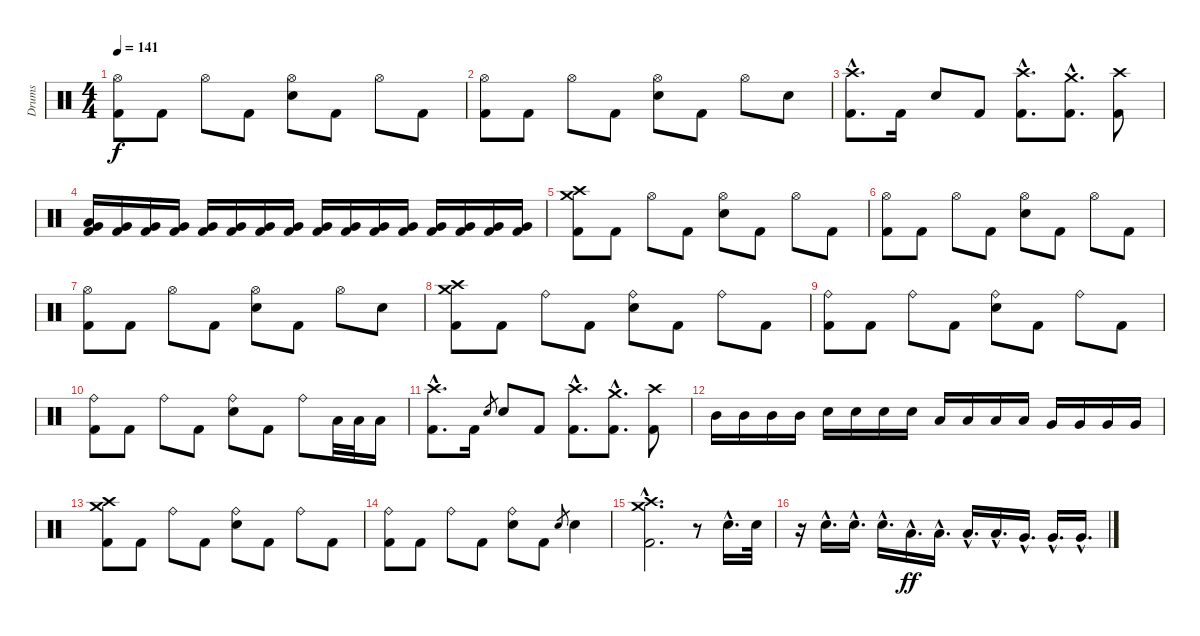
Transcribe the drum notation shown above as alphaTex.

\track ("Drums" "Drums") {instrument percussion}
\staff {score}
\articulation defaults
\ts (4 4)
\tempo 141
\clef neutral
\ks c
("Hi-Hat (open)" "Kick (hit) 2").8{dy f} "Kick (hit) 2".8 "Hi-Hat (open)".8 "Kick (hit) 2".8 ("Hi-Hat (open)" "Snare (hit) 2").8 "Kick (hit) 2".8 "Hi-Hat (open)".8 "Kick (hit) 2".8 |
("Hi-Hat (open)" "Kick (hit) 2").8 "Kick (hit) 2".8 "Hi-Hat (open)".8 "Kick (hit) 2".8 ("Hi-Hat (open)" "Snare (hit) 2").8 "Kick (hit) 2".8 "Hi-Hat (open)".8 "Snare (hit) 2".8 |
("Crash high (hit)"{hac} "Kick (hit) 2"{hac}).8{d} "Kick (hit) 2".16 "Snare (hit) 2".8 "Kick (hit) 2".8 ("Crash high (hit)"{hac} "Kick (hit) 2"{hac}).8{d} ("Crash medium (hit)"{hac} "Kick (hit) 2"{hac}).8{d} ("Crash high (hit)" "Kick (hit) 2").8 |
("Very Low Tom (hit)" "Low Floor Tom (hit)" "Kick (hit) 2").16 ("Very Low Tom (hit)" "Kick (hit) 2").16 ("Very Low Tom (hit)" "Kick (hit) 2").16 ("Very Low Tom (hit)" "Kick (hit) 2").16 ("Very Low Tom (hit)" "Kick (hit) 2").16 ("Very Low Tom (hit)" "Kick (hit) 2").16 ("Very Low Tom (hit)" "Kick (hit) 2").16 ("Very Low Tom (hit)" "Kick (hit) 2").16 ("Very Low Tom (hit)" "Kick (hit) 2").16 ("Very Low Tom (hit)" "Kick (hit) 2").16 ("Very Low Tom (hit)" "Kick (hit) 2").16 ("Very Low Tom (hit)" "Kick (hit) 2").16 ("Very Low Tom (hit)" "Kick (hit) 2").16 ("Very Low Tom (hit)" "Kick (hit) 2").16 ("Very Low Tom (hit)" "Kick (hit) 2").16 ("Very Low Tom (hit)" "Kick (hit) 2").16 |
("Crash high (hit)" "Crash medium (hit)" "Kick (hit) 2").8 "Kick (hit) 2".8 "Hi-Hat (open)".8 "Kick (hit) 2".8 ("Hi-Hat (open)" "Snare (hit) 2").8 "Kick (hit) 2".8 "Hi-Hat (open)".8 "Kick (hit) 2".8 |
("Hi-Hat (open)" "Kick (hit) 2").8 "Kick (hit) 2".8 "Hi-Hat (open)".8 "Kick (hit) 2".8 ("Hi-Hat (open)" "Snare (hit) 2").8 "Kick (hit) 2".8 "Hi-Hat (open)".8 "Kick (hit) 2".8 |
("Hi-Hat (open)" "Kick (hit) 2").8 "Kick (hit) 2".8 "Hi-Hat (open)".8 "Kick (hit) 2".8 ("Hi-Hat (open)" "Snare (hit) 2").8 "Kick (hit) 2".8 "Hi-Hat (open)".8 "Snare (hit) 2".8 |
("Crash high (hit)" "Crash medium (hit)" "Kick (hit) 2").8 "Kick (hit) 2".8 "Ride (bell)".8 "Kick (hit) 2".8 ("Ride (bell)" "Snare (hit) 2").8 "Kick (hit) 2".8 "Ride (bell)".8 "Kick (hit) 2".8 |
("Ride (bell)" "Kick (hit) 2").8 "Kick (hit) 2".8 "Ride (bell)".8 "Kick (hit) 2".8 ("Ride (bell)" "Snare (hit) 2").8 "Kick (hit) 2".8 "Ride (bell)".8 "Kick (hit) 2".8 |
("Ride (bell)" "Kick (hit) 2").8 "Kick (hit) 2".8 "Ride (bell)".8 "Kick (hit) 2".8 ("Ride (bell)" "Snare (hit) 2").8 "Kick (hit) 2".8 "Ride (bell)".8 "Low Tom (hit)".32 "Low Tom (hit)".32 "Low Tom (hit)".16 |
("Crash high (hit)"{hac} "Kick (hit) 2"{hac}).8{d} "Kick (hit) 2".16 "Snare (hit) 2".8{gr} "Snare (hit) 2".8 "Kick (hit) 2".8 ("Crash high (hit)"{hac} "Kick (hit) 2"{hac}).8{d} ("Crash medium (hit)"{hac} "Kick (hit) 2"{hac}).8{d} ("Crash high (hit)" "Kick (hit) 2").8 |
"Mid Tom (hit)".16 "Mid Tom (hit)".16 "Mid Tom (hit)".16 "Mid Tom (hit)".16 "Snare (hit) 2".16 "Snare (hit) 2".16 "Snare (hit) 2".16 "Snare (hit) 2".16 "Low Tom (hit)".16 "Low Tom (hit)".16 "Low Tom (hit)".16 "Low Tom (hit)".16 "Very Low Tom (hit)".16 "Very Low Tom (hit)".16 "Very Low Tom (hit)".16 "Very Low Tom (hit)".16 |
("Crash high (hit)" "Crash medium (hit)" "Kick (hit) 2").8 "Kick (hit) 2".8 "Ride (bell)".8 "Kick (hit) 2".8 ("Ride (bell)" "Snare (hit) 2").8 "Kick (hit) 2".8 "Ride (bell)".8 "Kick (hit) 2".8 |
("Ride (bell)" "Kick (hit) 2").8 "Kick (hit) 2".8 "Ride (bell)".8 "Kick (hit) 2".8 ("Ride (bell)" "Snare (hit) 2").8 "Kick (hit) 2".8 "Snare (hit) 2".8{gr} "Snare (hit) 2".4 |
("Crash high (hit)"{hac} "Crash medium (hit)"{hac} "Kick (hit) 2"{hac}).2{d} r.8 "Snare (hit) 2"{hac}.16{d} "Snare (hit) 2".32 |
r.16 "Snare (hit) 2"{hac}.16{d} "Snare (hit) 2"{hac}.16{d} "Snare (hit) 2"{hac}.16{d} "Low Tom (hit)"{hac}.16{d dy ff} "Low Tom (hit)"{hac}.16{d} "Low Tom (hit)"{hac}.16{d} "Low Tom (hit)"{hac}.16{d} "Very Low Tom (hit)"{hac}.16{d} "Very Low Tom (hit)"{hac}.16{d} "Very Low Tom (hit)"{hac}.16{d}
